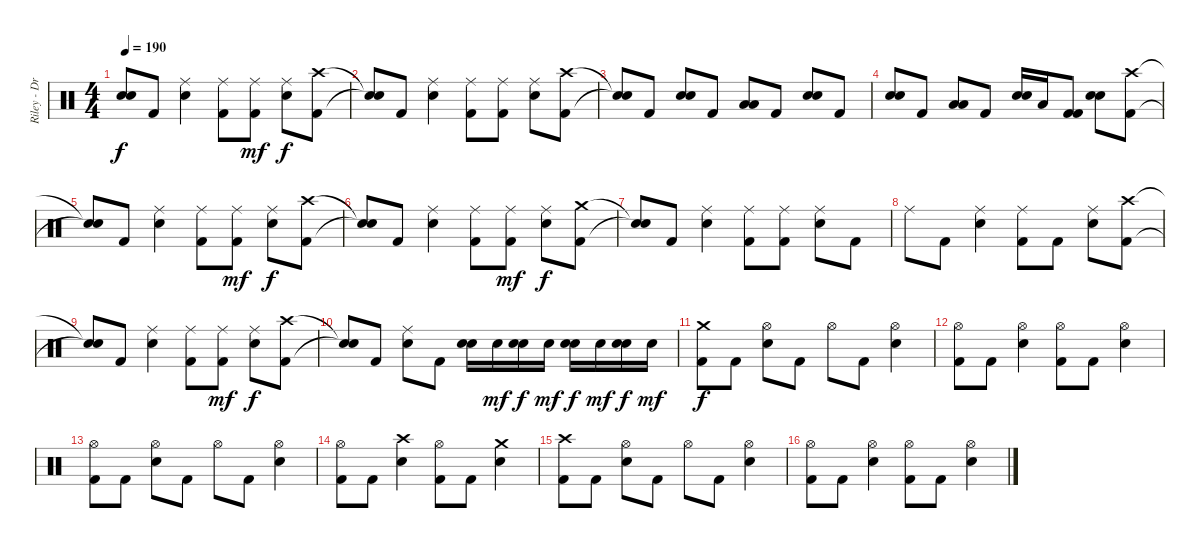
\track ("Riley - Drums" "Riley - Dr") {instrument percussion}
\staff {score}
\articulation defaults
\ts (4 4)
\tempo 190
\clef neutral
\ks c
("Snare (hit)"{t} "Snare (hit)"{t}).8{dy f} "Kick (hit) 2".8 ("Electric Snare (hit)" "Ride (middle)").4 ("Kick (hit) 2" "Ride (middle)").8 ("Kick (hit) 2" "Ride (middle)").8{dy mf} ("Electric Snare (hit)" "Ride (middle)").8{dy f} ("Kick (hit) 2" "Crash high (hit)").8 |
("Snare (hit)"{t} "Snare (hit)"{t}).8 "Kick (hit) 2".8 ("Electric Snare (hit)" "Ride (middle)").4 ("Kick (hit) 2" "Ride (middle)").8 ("Kick (hit) 2" "Ride (middle)").8 ("Electric Snare (hit)" "Ride (middle)").8 ("Kick (hit) 2" "Crash high (hit)").8 |
("Snare (hit)"{t} "Snare (hit)"{t}).8 "Kick (hit) 2".8 ("Electric Snare (hit)" "Electric Snare (hit)").8 "Kick (hit) 2".8 ("Low Tom (hit)" "Low Tom (hit)").8 "Kick (hit) 2".8 ("Electric Snare (hit)" "Electric Snare (hit)").8 "Kick (hit) 2".8 |
("Electric Snare (hit)" "Electric Snare (hit)").8 "Kick (hit) 2".8 ("Low Tom (hit)" "Low Tom (hit)").8 "Kick (hit) 2".8 ("Electric Snare (hit)" "Electric Snare (hit)").16 "Low Tom (hit)".16 ("Kick (hit) 2" "Kick (hit) 2").8 ("Electric Snare (hit)" "Electric Snare (hit)").8 ("Kick (hit) 2" "Crash high (hit)").8 |
("Snare (hit)"{t} "Snare (hit)"{t}).8 "Kick (hit) 2".8 ("Electric Snare (hit)" "Ride (middle)").4 ("Kick (hit) 2" "Ride (middle)").8 ("Kick (hit) 2" "Ride (middle)").8{dy mf} ("Electric Snare (hit)" "Ride (middle)").8{dy f} ("Kick (hit) 2" "Crash high (hit)").8 |
("Snare (hit)"{t} "Snare (hit)"{t}).8 "Kick (hit) 2".8 ("Electric Snare (hit)" "Ride (middle)").4 ("Kick (hit) 2" "Ride (middle)").8 ("Kick (hit) 2" "Ride (middle)").8{dy mf} ("Electric Snare (hit)" "Ride (middle)").8{dy f} ("Kick (hit) 2" "Crash medium (hit)").8 |
("Snare (hit)"{t} "Snare (hit)"{t}).8 "Kick (hit) 2".8 ("Electric Snare (hit)" "Ride (middle)").4 ("Kick (hit) 2" "Ride (middle)").8 ("Kick (hit) 2" "Ride (middle)").8 ("Electric Snare (hit)" "Ride (middle)").8 "Kick (hit) 2".8 |
"Ride (middle)".8 "Kick (hit) 2".8 ("Electric Snare (hit)" "Ride (middle)").4 ("Kick (hit) 2" "Ride (middle)").8 "Kick (hit) 2".8 ("Electric Snare (hit)" "Ride (middle)").8 ("Kick (hit) 2" "Crash high (hit)").8 |
("Snare (hit)"{t} "Snare (hit)"{t}).8 "Kick (hit) 2".8 ("Electric Snare (hit)" "Ride (middle)").4 ("Kick (hit) 2" "Ride (middle)").8 ("Kick (hit) 2" "Ride (middle)").8{dy mf} ("Electric Snare (hit)" "Ride (middle)").8{dy f} ("Kick (hit) 2" "Crash high (hit)").8 |
("Snare (hit)"{t} "Snare (hit)"{t}).8 "Kick (hit) 2".8 ("Electric Snare (hit)" "Ride (middle)").8 "Kick (hit) 2".8 ("Electric Snare (hit)" "Electric Snare (hit)").16 "Electric Snare (hit)".16{dy mf} ("Electric Snare (hit)" "Electric Snare (hit)").16{dy f} "Electric Snare (hit)".16{dy mf} ("Electric Snare (hit)" "Electric Snare (hit)").16{dy f} "Electric Snare (hit)".16{dy mf} ("Electric Snare (hit)" "Electric Snare (hit)").16{dy f} "Electric Snare (hit)".16{dy mf} |
("Kick (hit) 2" "Crash medium (hit)").8{dy f} "Kick (hit) 2".8 ("Electric Snare (hit)" "Hi-Hat (open)").8 "Kick (hit) 2".8 "Hi-Hat (open)".8 "Kick (hit) 2".8 ("Electric Snare (hit)" "Hi-Hat (open)").4 |
("Kick (hit) 2" "Hi-Hat (open)").8 "Kick (hit) 2".8 ("Electric Snare (hit)" "Hi-Hat (open)").4 ("Kick (hit) 2" "Hi-Hat (open)").8 "Kick (hit) 2".8 ("Electric Snare (hit)" "Hi-Hat (open)").4 |
("Kick (hit) 2" "Hi-Hat (open)").8 "Kick (hit) 2".8 ("Electric Snare (hit)" "Hi-Hat (open)").8 "Kick (hit) 2".8 "Hi-Hat (open)".8 "Kick (hit) 2".8 ("Electric Snare (hit)" "Hi-Hat (open)").4 |
("Kick (hit) 2" "Hi-Hat (open)").8 "Kick (hit) 2".8 ("Electric Snare (hit)" "Crash high (hit)").4 ("Kick (hit) 2" "Hi-Hat (open)").8 "Kick (hit) 2".8 ("Electric Snare (hit)" "Crash medium (hit)").4 |
("Kick (hit) 2" "Crash high (hit)").8 "Kick (hit) 2".8 ("Electric Snare (hit)" "Hi-Hat (open)").8 "Kick (hit) 2".8 "Hi-Hat (open)".8 "Kick (hit) 2".8 ("Electric Snare (hit)" "Hi-Hat (open)").4 |
("Kick (hit) 2" "Hi-Hat (open)").8 "Kick (hit) 2".8 ("Electric Snare (hit)" "Hi-Hat (open)").4 ("Kick (hit) 2" "Hi-Hat (open)").8 "Kick (hit) 2".8 ("Electric Snare (hit)" "Hi-Hat (open)").4
